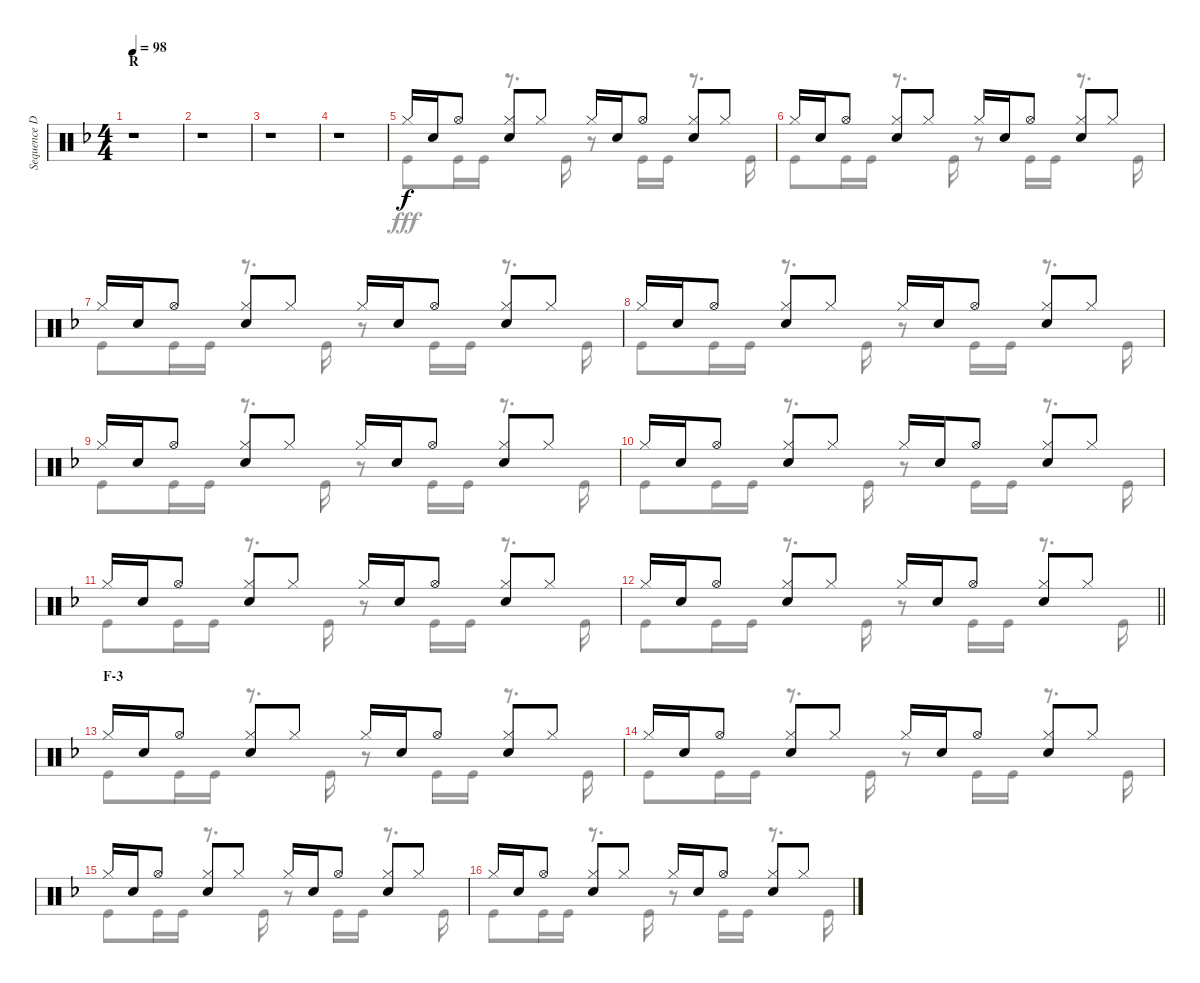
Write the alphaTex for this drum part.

\track ("Sequence Drums II" "Sequence D") {instrument percussion}
\staff {score}
\articulation defaults
\voice
\ts (4 4)
\section ("" "R")
\tempo 98
\clef neutral
\ks f
r.1{dy f} |
r.1 |
r.1 |
r.1 |
"Hi-Hat (closed)".16 "Snare (hit) 2".16 "Hi-Hat (open)".8 ("Hi-Hat (closed)" "Snare (hit) 2").8 "Hi-Hat (closed)".8 "Hi-Hat (closed)".16 "Snare (hit) 2".16 "Hi-Hat (open)".8 ("Hi-Hat (closed)" "Snare (hit) 2").8 "Hi-Hat (closed)".8 |
"Hi-Hat (closed)".16 "Snare (hit) 2".16 "Hi-Hat (open)".8 ("Hi-Hat (closed)" "Snare (hit) 2").8 "Hi-Hat (closed)".8 "Hi-Hat (closed)".16 "Snare (hit) 2".16 "Hi-Hat (open)".8 ("Hi-Hat (closed)" "Snare (hit) 2").8 "Hi-Hat (closed)".8 |
"Hi-Hat (closed)".16 "Snare (hit) 2".16 "Hi-Hat (open)".8 ("Hi-Hat (closed)" "Snare (hit) 2").8 "Hi-Hat (closed)".8 "Hi-Hat (closed)".16 "Snare (hit) 2".16 "Hi-Hat (open)".8 ("Hi-Hat (closed)" "Snare (hit) 2").8 "Hi-Hat (closed)".8 |
"Hi-Hat (closed)".16 "Snare (hit) 2".16 "Hi-Hat (open)".8 ("Hi-Hat (closed)" "Snare (hit) 2").8 "Hi-Hat (closed)".8 "Hi-Hat (closed)".16 "Snare (hit) 2".16 "Hi-Hat (open)".8 ("Hi-Hat (closed)" "Snare (hit) 2").8 "Hi-Hat (closed)".8 |
"Hi-Hat (closed)".16 "Snare (hit) 2".16 "Hi-Hat (open)".8 ("Hi-Hat (closed)" "Snare (hit) 2").8 "Hi-Hat (closed)".8 "Hi-Hat (closed)".16 "Snare (hit) 2".16 "Hi-Hat (open)".8 ("Hi-Hat (closed)" "Snare (hit) 2").8 "Hi-Hat (closed)".8 |
"Hi-Hat (closed)".16 "Snare (hit) 2".16 "Hi-Hat (open)".8 ("Hi-Hat (closed)" "Snare (hit) 2").8 "Hi-Hat (closed)".8 "Hi-Hat (closed)".16 "Snare (hit) 2".16 "Hi-Hat (open)".8 ("Hi-Hat (closed)" "Snare (hit) 2").8 "Hi-Hat (closed)".8 |
"Hi-Hat (closed)".16 "Snare (hit) 2".16 "Hi-Hat (open)".8 ("Hi-Hat (closed)" "Snare (hit) 2").8 "Hi-Hat (closed)".8 "Hi-Hat (closed)".16 "Snare (hit) 2".16 "Hi-Hat (open)".8 ("Hi-Hat (closed)" "Snare (hit) 2").8 "Hi-Hat (closed)".8 |
\barLineRight lightlight "Hi-Hat (closed)".16 "Snare (hit) 2".16 "Hi-Hat (open)".8
("Hi-Hat (closed)" "Snare (hit) 2").8 "Hi-Hat (closed)".8 "Hi-Hat (closed)".16 "Snare (hit) 2".16 "Hi-Hat (open)".8 ("Hi-Hat (closed)" "Snare (hit) 2").8 "Hi-Hat (closed)".8 |
\section ("" "F-3")
"Hi-Hat (closed)".16 "Snare (hit) 2".16 "Hi-Hat (open)".8 ("Hi-Hat (closed)" "Snare (hit) 2").8 "Hi-Hat (closed)".8 "Hi-Hat (closed)".16 "Snare (hit) 2".16 "Hi-Hat (open)".8 ("Hi-Hat (closed)" "Snare (hit) 2").8 "Hi-Hat (closed)".8 |
"Hi-Hat (closed)".16 "Snare (hit) 2".16 "Hi-Hat (open)".8 ("Hi-Hat (closed)" "Snare (hit) 2").8 "Hi-Hat (closed)".8 "Hi-Hat (closed)".16 "Snare (hit) 2".16 "Hi-Hat (open)".8 ("Hi-Hat (closed)" "Snare (hit) 2").8 "Hi-Hat (closed)".8 |
"Hi-Hat (closed)".16 "Snare (hit) 2".16 "Hi-Hat (open)".8 ("Hi-Hat (closed)" "Snare (hit) 2").8 "Hi-Hat (closed)".8 "Hi-Hat (closed)".16 "Snare (hit) 2".16 "Hi-Hat (open)".8 ("Hi-Hat (closed)" "Snare (hit) 2").8 "Hi-Hat (closed)".8 |
"Hi-Hat (closed)".16 "Snare (hit) 2".16 "Hi-Hat (open)".8 ("Hi-Hat (closed)" "Snare (hit) 2").8 "Hi-Hat (closed)".8 "Hi-Hat (closed)".16 "Snare (hit) 2".16 "Hi-Hat (open)".8 ("Hi-Hat (closed)" "Snare (hit) 2").8 "Hi-Hat (closed)".8
\voice
\clef neutral
\ottava regular
\simile none
\ks f
r.1{dy fff} |
r.1 |
r.1 |
r.1 |
"Kick (hit)".8 "Kick (hit)".16 "Kick (hit)".16 r.8{d} "Kick (hit)".16 r.8 "Kick (hit)".16 "Kick (hit)".16 r.8{d} "Kick (hit)".16 |
"Kick (hit)".8 "Kick (hit)".16 "Kick (hit)".16 r.8{d} "Kick (hit)".16 r.8 "Kick (hit)".16 "Kick (hit)".16 r.8{d} "Kick (hit)".16 |
"Kick (hit)".8 "Kick (hit)".16 "Kick (hit)".16 r.8{d} "Kick (hit)".16 r.8 "Kick (hit)".16 "Kick (hit)".16 r.8{d} "Kick (hit)".16 |
"Kick (hit)".8 "Kick (hit)".16 "Kick (hit)".16 r.8{d} "Kick (hit)".16 r.8 "Kick (hit)".16 "Kick (hit)".16 r.8{d} "Kick (hit)".16 |
"Kick (hit)".8 "Kick (hit)".16 "Kick (hit)".16 r.8{d} "Kick (hit)".16 r.8 "Kick (hit)".16 "Kick (hit)".16 r.8{d} "Kick (hit)".16 |
"Kick (hit)".8 "Kick (hit)".16 "Kick (hit)".16 r.8{d} "Kick (hit)".16 r.8 "Kick (hit)".16 "Kick (hit)".16 r.8{d} "Kick (hit)".16 |
"Kick (hit)".8 "Kick (hit)".16 "Kick (hit)".16 r.8{d} "Kick (hit)".16 r.8 "Kick (hit)".16 "Kick (hit)".16 r.8{d} "Kick (hit)".16 |
\barLineRight lightlight "Kick (hit)".8 "Kick (hit)".16 "Kick (hit)".16
r.8{d} "Kick (hit)".16 r.8 "Kick (hit)".16 "Kick (hit)".16 r.8{d} "Kick (hit)".16 |
"Kick (hit)".8 "Kick (hit)".16 "Kick (hit)".16 r.8{d} "Kick (hit)".16 r.8 "Kick (hit)".16 "Kick (hit)".16 r.8{d} "Kick (hit)".16 |
"Kick (hit)".8 "Kick (hit)".16 "Kick (hit)".16 r.8{d} "Kick (hit)".16 r.8 "Kick (hit)".16 "Kick (hit)".16 r.8{d} "Kick (hit)".16 |
"Kick (hit)".8 "Kick (hit)".16 "Kick (hit)".16 r.8{d} "Kick (hit)".16 r.8 "Kick (hit)".16 "Kick (hit)".16 r.8{d} "Kick (hit)".16 |
"Kick (hit)".8 "Kick (hit)".16 "Kick (hit)".16 r.8{d} "Kick (hit)".16 r.8 "Kick (hit)".16 "Kick (hit)".16 r.8{d} "Kick (hit)".16
